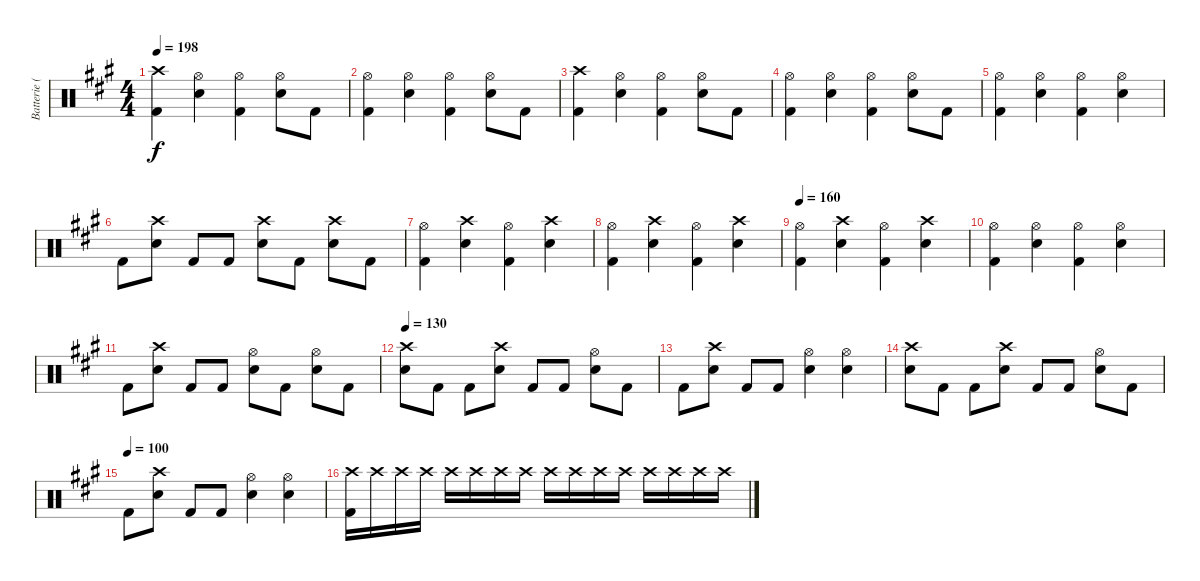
\track ("Batterie (Phil Roud)" "Batterie (") {instrument percussion}
\staff {score}
\articulation defaults
\ts (4 4)
\tempo 198
\clef neutral
\ks a
("Crash high (hit)" "Kick (hit) 2").4{dy f} ("Hi-Hat (open)" "Snare (hit) 2").4 ("Hi-Hat (open)" "Kick (hit) 2").4 ("Hi-Hat (open)" "Snare (hit) 2").8 "Kick (hit) 2".8 |
("Hi-Hat (open)" "Kick (hit) 2").4 ("Hi-Hat (open)" "Snare (hit) 2").4 ("Hi-Hat (open)" "Kick (hit) 2").4 ("Hi-Hat (open)" "Snare (hit) 2").8 "Kick (hit) 2".8 |
("Crash high (hit)" "Kick (hit) 2").4 ("Hi-Hat (open)" "Snare (hit) 2").4 ("Hi-Hat (open)" "Kick (hit) 2").4 ("Hi-Hat (open)" "Snare (hit) 2").8 "Kick (hit) 2".8 |
("Hi-Hat (open)" "Kick (hit) 2").4 ("Hi-Hat (open)" "Snare (hit) 2").4 ("Hi-Hat (open)" "Kick (hit) 2").4 ("Hi-Hat (open)" "Snare (hit) 2").8 "Kick (hit) 2".8 |
("Hi-Hat (open)" "Kick (hit) 2").4 ("Hi-Hat (open)" "Snare (hit) 2").4 ("Hi-Hat (open)" "Kick (hit) 2").4 ("Hi-Hat (open)" "Snare (hit) 2").4 |
"Kick (hit) 2".8 ("Crash high (hit)" "Snare (hit) 2").8 "Kick (hit) 2".8 "Kick (hit) 2".8 ("Crash high (hit)" "Snare (hit) 2").8 "Kick (hit) 2".8 ("Crash high (hit)" "Snare (hit) 2").8 "Kick (hit) 2".8 |
("Hi-Hat (open)" "Kick (hit) 2").4 ("Crash high (hit)" "Snare (hit) 2").4 ("Hi-Hat (open)" "Kick (hit) 2").4 ("Crash high (hit)" "Snare (hit) 2").4 |
("Hi-Hat (open)" "Kick (hit) 2").4 ("Crash high (hit)" "Snare (hit) 2").4 ("Hi-Hat (open)" "Kick (hit) 2").4 ("Crash high (hit)" "Snare (hit) 2").4 |
\tempo 160
("Hi-Hat (open)" "Kick (hit) 2").4 ("Crash high (hit)" "Snare (hit) 2").4 ("Hi-Hat (open)" "Kick (hit) 2").4 ("Crash high (hit)" "Snare (hit) 2").4 |
("Hi-Hat (open)" "Kick (hit) 2").4 ("Hi-Hat (open)" "Snare (hit) 2").4 ("Hi-Hat (open)" "Kick (hit) 2").4 ("Hi-Hat (open)" "Snare (hit) 2").4 |
"Kick (hit) 2".8 ("Crash high (hit)" "Snare (hit) 2").8 "Kick (hit) 2".8 "Kick (hit) 2".8 ("Hi-Hat (open)" "Snare (hit) 2").8 "Kick (hit) 2".8 ("Hi-Hat (open)" "Snare (hit) 2").8 "Kick (hit) 2".8 |
\tempo 130
("Crash high (hit)" "Snare (hit) 2").8 "Kick (hit) 2".8 "Kick (hit) 2".8 ("Crash high (hit)" "Snare (hit) 2").8 "Kick (hit) 2".8 "Kick (hit) 2".8 ("Hi-Hat (open)" "Snare (hit) 2").8 "Kick (hit) 2".8 |
"Kick (hit) 2".8 ("Crash high (hit)" "Snare (hit) 2").8 "Kick (hit) 2".8 "Kick (hit) 2".8 ("Hi-Hat (open)" "Snare (hit) 2").4 ("Hi-Hat (open)" "Snare (hit) 2").4 |
("Crash high (hit)" "Snare (hit) 2").8 "Kick (hit) 2".8 "Kick (hit) 2".8 ("Crash high (hit)" "Snare (hit) 2").8 "Kick (hit) 2".8 "Kick (hit) 2".8 ("Hi-Hat (open)" "Snare (hit) 2").8 "Kick (hit) 2".8 |
\tempo (100)
"Kick (hit) 2".8 ("Crash high (hit)" "Snare (hit) 2").8 "Kick (hit) 2".8 "Kick (hit) 2".8 ("Hi-Hat (open)" "Snare (hit) 2").4 ("Hi-Hat (open)" "Snare (hit) 2").4 |
("Crash high (hit)" "Kick (hit) 2").16 "Crash high (hit)".16 "Crash high (hit)".16 "Crash high (hit)".16 "Crash high (hit)".16 "Crash high (hit)".16 "Crash high (hit)".16 "Crash high (hit)".16 "Crash high (hit)".16 "Crash high (hit)".16 "Crash high (hit)".16 "Crash high (hit)".16 "Crash high (hit)".16 "Crash high (hit)".16 "Crash high (hit)".16 "Crash high (hit)".16
